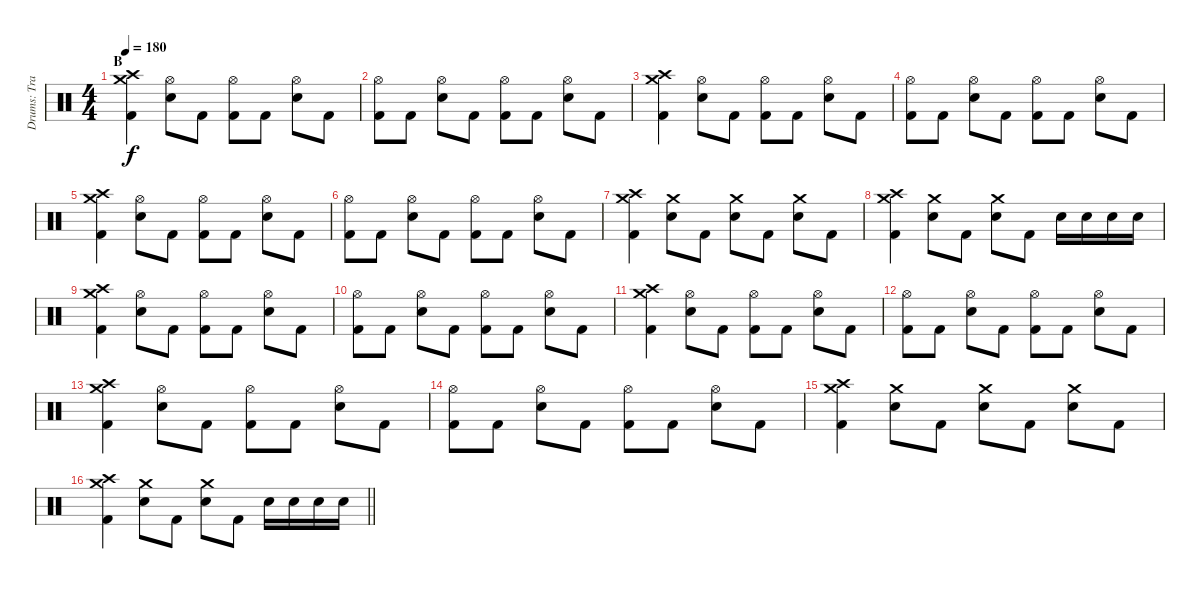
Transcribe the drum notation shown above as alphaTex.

\track ("Drums: Travis Clarke" "Drums: Tra") {instrument percussion}
\staff {score}
\articulation defaults
\ts (4 4)
\section ("" "B")
\tempo 180
\clef neutral
\ks c
("Kick (hit) 2" "Crash high (hit)" "Crash medium (hit)").4{dy f} ("Snare (hit) 2" "Hi-Hat (open)").8 "Kick (hit) 2".8 ("Kick (hit) 2" "Hi-Hat (open)").8 "Kick (hit) 2".8 ("Snare (hit) 2" "Hi-Hat (open)").8 "Kick (hit) 2".8 |
("Kick (hit) 2" "Hi-Hat (open)").8 "Kick (hit) 2".8 ("Snare (hit) 2" "Hi-Hat (open)").8 "Kick (hit) 2".8 ("Kick (hit) 2" "Hi-Hat (open)").8 "Kick (hit) 2".8 ("Snare (hit) 2" "Hi-Hat (open)").8 "Kick (hit) 2".8 |
("Kick (hit) 2" "Crash high (hit)" "Crash medium (hit)").4 ("Snare (hit) 2" "Hi-Hat (open)").8 "Kick (hit) 2".8 ("Kick (hit) 2" "Hi-Hat (open)").8 "Kick (hit) 2".8 ("Snare (hit) 2" "Hi-Hat (open)").8 "Kick (hit) 2".8 |
("Kick (hit) 2" "Hi-Hat (open)").8 "Kick (hit) 2".8 ("Snare (hit) 2" "Hi-Hat (open)").8 "Kick (hit) 2".8 ("Kick (hit) 2" "Hi-Hat (open)").8 "Kick (hit) 2".8 ("Snare (hit) 2" "Hi-Hat (open)").8 "Kick (hit) 2".8 |
("Kick (hit) 2" "Crash high (hit)" "Crash medium (hit)").4 ("Snare (hit) 2" "Hi-Hat (open)").8 "Kick (hit) 2".8 ("Kick (hit) 2" "Hi-Hat (open)").8 "Kick (hit) 2".8 ("Snare (hit) 2" "Hi-Hat (open)").8 "Kick (hit) 2".8 |
("Kick (hit) 2" "Hi-Hat (open)").8 "Kick (hit) 2".8 ("Snare (hit) 2" "Hi-Hat (open)").8 "Kick (hit) 2".8 ("Kick (hit) 2" "Hi-Hat (open)").8 "Kick (hit) 2".8 ("Snare (hit) 2" "Hi-Hat (open)").8 "Kick (hit) 2".8 |
("Kick (hit) 2" "Crash high (hit)" "Crash medium (hit)").4 ("Snare (hit) 2" "Crash medium (hit)").8 "Kick (hit) 2".8 ("Snare (hit) 2" "Crash medium (hit)").8 "Kick (hit) 2".8 ("Snare (hit) 2" "Crash medium (hit)").8 "Kick (hit) 2".8 |
("Kick (hit) 2" "Crash high (hit)" "Crash medium (hit)").4 ("Snare (hit) 2" "Crash medium (hit)").8 "Kick (hit) 2".8 ("Snare (hit) 2" "Crash medium (hit)").8 "Kick (hit) 2".8 "Snare (hit) 2".16 "Snare (hit) 2".16 "Snare (hit) 2".16 "Snare (hit) 2".16 |
("Kick (hit) 2" "Crash high (hit)" "Crash medium (hit)").4 ("Snare (hit) 2" "Hi-Hat (open)").8 "Kick (hit) 2".8 ("Kick (hit) 2" "Hi-Hat (open)").8 "Kick (hit) 2".8 ("Snare (hit) 2" "Hi-Hat (open)").8 "Kick (hit) 2".8 |
("Kick (hit) 2" "Hi-Hat (open)").8 "Kick (hit) 2".8 ("Snare (hit) 2" "Hi-Hat (open)").8 "Kick (hit) 2".8 ("Kick (hit) 2" "Hi-Hat (open)").8 "Kick (hit) 2".8 ("Snare (hit) 2" "Hi-Hat (open)").8 "Kick (hit) 2".8 |
("Kick (hit) 2" "Crash high (hit)" "Crash medium (hit)").4 ("Snare (hit) 2" "Hi-Hat (open)").8 "Kick (hit) 2".8 ("Kick (hit) 2" "Hi-Hat (open)").8 "Kick (hit) 2".8 ("Snare (hit) 2" "Hi-Hat (open)").8 "Kick (hit) 2".8 |
("Kick (hit) 2" "Hi-Hat (open)").8 "Kick (hit) 2".8 ("Snare (hit) 2" "Hi-Hat (open)").8 "Kick (hit) 2".8 ("Kick (hit) 2" "Hi-Hat (open)").8 "Kick (hit) 2".8 ("Snare (hit) 2" "Hi-Hat (open)").8 "Kick (hit) 2".8 |
("Kick (hit) 2" "Crash high (hit)" "Crash medium (hit)").4 ("Snare (hit) 2" "Hi-Hat (open)").8 "Kick (hit) 2".8 ("Kick (hit) 2" "Hi-Hat (open)").8 "Kick (hit) 2".8 ("Snare (hit) 2" "Hi-Hat (open)").8 "Kick (hit) 2".8 |
("Kick (hit) 2" "Hi-Hat (open)").8 "Kick (hit) 2".8 ("Snare (hit) 2" "Hi-Hat (open)").8 "Kick (hit) 2".8 ("Kick (hit) 2" "Hi-Hat (open)").8 "Kick (hit) 2".8 ("Snare (hit) 2" "Hi-Hat (open)").8 "Kick (hit) 2".8 |
("Kick (hit) 2" "Crash high (hit)" "Crash medium (hit)").4 ("Snare (hit) 2" "Crash medium (hit)").8 "Kick (hit) 2".8 ("Snare (hit) 2" "Crash medium (hit)").8 "Kick (hit) 2".8 ("Snare (hit) 2" "Crash medium (hit)").8 "Kick (hit) 2".8 |
\barLineRight lightlight
("Kick (hit) 2" "Crash high (hit)" "Crash medium (hit)").4 ("Snare (hit) 2" "Crash medium (hit)").8 "Kick (hit) 2".8 ("Snare (hit) 2" "Crash medium (hit)").8 "Kick (hit) 2".8 "Snare (hit) 2".16 "Snare (hit) 2".16 "Snare (hit) 2".16 "Snare (hit) 2".16
